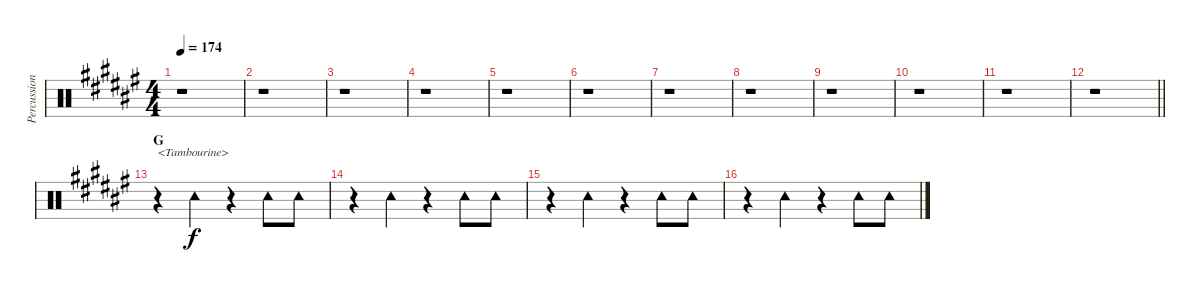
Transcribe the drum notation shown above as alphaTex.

\track ("Percussion II" "Percussion") {instrument percussion}
\staff {score}
\articulation defaults
\ts (4 4)
\tempo 174
\clef neutral
\ks f#
r.1{dy f} |
r.1 |
r.1 |
r.1 |
r.1 |
r.1 |
r.1 |
r.1 |
r.1 |
r.1 |
r.1 |
\barLineRight lightlight
r.1 |
\section ("" "G")
r.4{txt "<Tambourine>"} "Tambourine (hit)".4 r.4 "Tambourine (hit)".8 "Tambourine (hit)".8 |
r.4 "Tambourine (hit)".4 r.4 "Tambourine (hit)".8 "Tambourine (hit)".8 |
r.4 "Tambourine (hit)".4 r.4 "Tambourine (hit)".8 "Tambourine (hit)".8 |
r.4 "Tambourine (hit)".4 r.4 "Tambourine (hit)".8 "Tambourine (hit)".8
